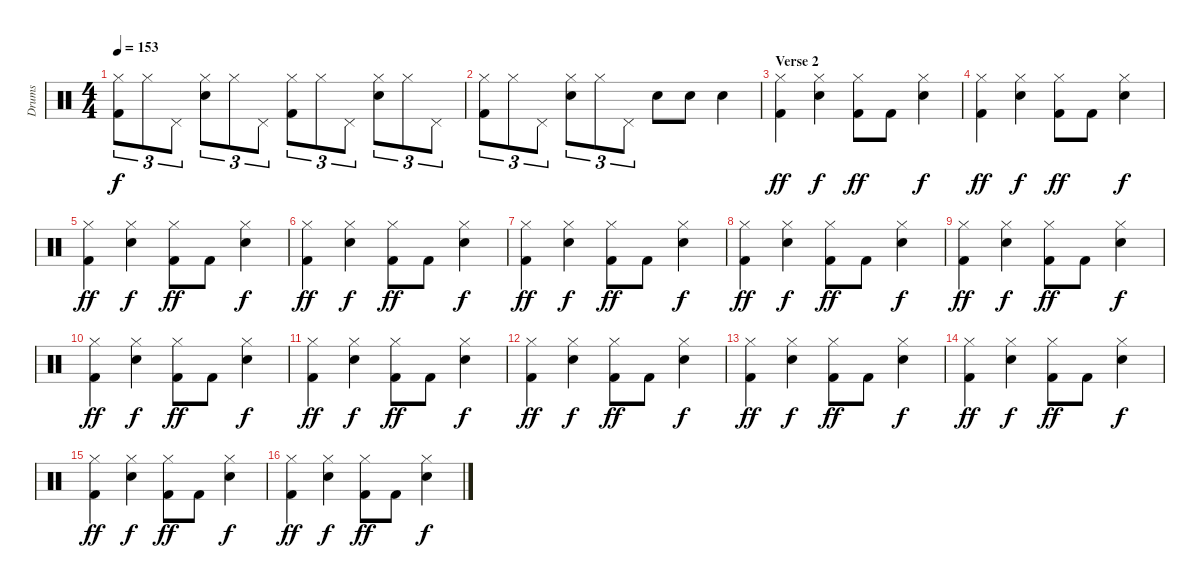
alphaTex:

\track ("Drums" "Drums") {instrument percussion}
\staff {score}
\articulation defaults
\ts (4 4)
\tempo 153
\clef neutral
\ks c
("Hi-Hat (closed)" "Kick (hit) 2").8{tu (3 2) dy f} "Hi-Hat (closed)".8{tu (3 2)} "Pedal Hi-Hat (hit)".8{tu (3 2)} ("Hi-Hat (closed)" "Electric Snare (hit)").8{tu (3 2)} "Hi-Hat (closed)".8{tu (3 2)} "Pedal Hi-Hat (hit)".8{tu (3 2)} ("Hi-Hat (closed)" "Kick (hit) 2").8{tu (3 2)} "Hi-Hat (closed)".8{tu (3 2)} "Pedal Hi-Hat (hit)".8{tu (3 2)} ("Hi-Hat (closed)" "Electric Snare (hit)").8{tu (3 2)} "Hi-Hat (closed)".8{tu (3 2)} "Pedal Hi-Hat (hit)".8{tu (3 2)} |
("Hi-Hat (closed)" "Kick (hit) 2").8{tu (3 2)} "Hi-Hat (closed)".8{tu (3 2)} "Pedal Hi-Hat (hit)".8{tu (3 2)} ("Hi-Hat (closed)" "Electric Snare (hit)").8{tu (3 2)} "Hi-Hat (closed)".8{tu (3 2)} "Pedal Hi-Hat (hit)".8{tu (3 2)} "Electric Snare (hit)".8 "Electric Snare (hit)".8 "Electric Snare (hit)".4 |
\section ("" "Verse 2")
("Hi-Hat (closed)" "Kick (hit) 2").4{dy ff} ("Hi-Hat (closed)" "Electric Snare (hit)").4{dy f} ("Hi-Hat (closed)" "Kick (hit) 2").8{dy ff} "Kick (hit) 2".8 ("Hi-Hat (closed)" "Electric Snare (hit)").4{dy f} |
("Hi-Hat (closed)" "Kick (hit) 2").4{dy ff} ("Hi-Hat (closed)" "Electric Snare (hit)").4{dy f} ("Hi-Hat (closed)" "Kick (hit) 2").8{dy ff} "Kick (hit) 2".8 ("Hi-Hat (closed)" "Electric Snare (hit)").4{dy f} |
("Hi-Hat (closed)" "Kick (hit) 2").4{dy ff} ("Hi-Hat (closed)" "Electric Snare (hit)").4{dy f} ("Hi-Hat (closed)" "Kick (hit) 2").8{dy ff} "Kick (hit) 2".8 ("Hi-Hat (closed)" "Electric Snare (hit)").4{dy f} |
("Hi-Hat (closed)" "Kick (hit) 2").4{dy ff} ("Hi-Hat (closed)" "Electric Snare (hit)").4{dy f} ("Hi-Hat (closed)" "Kick (hit) 2").8{dy ff} "Kick (hit) 2".8 ("Hi-Hat (closed)" "Electric Snare (hit)").4{dy f} |
("Hi-Hat (closed)" "Kick (hit) 2").4{dy ff} ("Hi-Hat (closed)" "Electric Snare (hit)").4{dy f} ("Hi-Hat (closed)" "Kick (hit) 2").8{dy ff} "Kick (hit) 2".8 ("Hi-Hat (closed)" "Electric Snare (hit)").4{dy f} |
("Hi-Hat (closed)" "Kick (hit) 2").4{dy ff} ("Hi-Hat (closed)" "Electric Snare (hit)").4{dy f} ("Hi-Hat (closed)" "Kick (hit) 2").8{dy ff} "Kick (hit) 2".8 ("Hi-Hat (closed)" "Electric Snare (hit)").4{dy f} |
("Hi-Hat (closed)" "Kick (hit) 2").4{dy ff} ("Hi-Hat (closed)" "Electric Snare (hit)").4{dy f} ("Hi-Hat (closed)" "Kick (hit) 2").8{dy ff} "Kick (hit) 2".8 ("Hi-Hat (closed)" "Electric Snare (hit)").4{dy f} |
("Hi-Hat (closed)" "Kick (hit) 2").4{dy ff} ("Hi-Hat (closed)" "Electric Snare (hit)").4{dy f} ("Hi-Hat (closed)" "Kick (hit) 2").8{dy ff} "Kick (hit) 2".8 ("Hi-Hat (closed)" "Electric Snare (hit)").4{dy f} |
("Hi-Hat (closed)" "Kick (hit) 2").4{dy ff} ("Hi-Hat (closed)" "Electric Snare (hit)").4{dy f} ("Hi-Hat (closed)" "Kick (hit) 2").8{dy ff} "Kick (hit) 2".8 ("Hi-Hat (closed)" "Electric Snare (hit)").4{dy f} |
("Hi-Hat (closed)" "Kick (hit) 2").4{dy ff} ("Hi-Hat (closed)" "Electric Snare (hit)").4{dy f} ("Hi-Hat (closed)" "Kick (hit) 2").8{dy ff} "Kick (hit) 2".8 ("Hi-Hat (closed)" "Electric Snare (hit)").4{dy f} |
("Hi-Hat (closed)" "Kick (hit) 2").4{dy ff} ("Hi-Hat (closed)" "Electric Snare (hit)").4{dy f} ("Hi-Hat (closed)" "Kick (hit) 2").8{dy ff} "Kick (hit) 2".8 ("Hi-Hat (closed)" "Electric Snare (hit)").4{dy f} |
("Hi-Hat (closed)" "Kick (hit) 2").4{dy ff} ("Hi-Hat (closed)" "Electric Snare (hit)").4{dy f} ("Hi-Hat (closed)" "Kick (hit) 2").8{dy ff} "Kick (hit) 2".8 ("Hi-Hat (closed)" "Electric Snare (hit)").4{dy f} |
("Hi-Hat (closed)" "Kick (hit) 2").4{dy ff} ("Hi-Hat (closed)" "Electric Snare (hit)").4{dy f} ("Hi-Hat (closed)" "Kick (hit) 2").8{dy ff} "Kick (hit) 2".8 ("Hi-Hat (closed)" "Electric Snare (hit)").4{dy f} |
("Hi-Hat (closed)" "Kick (hit) 2").4{dy ff} ("Hi-Hat (closed)" "Electric Snare (hit)").4{dy f} ("Hi-Hat (closed)" "Kick (hit) 2").8{dy ff} "Kick (hit) 2".8 ("Hi-Hat (closed)" "Electric Snare (hit)").4{dy f}
